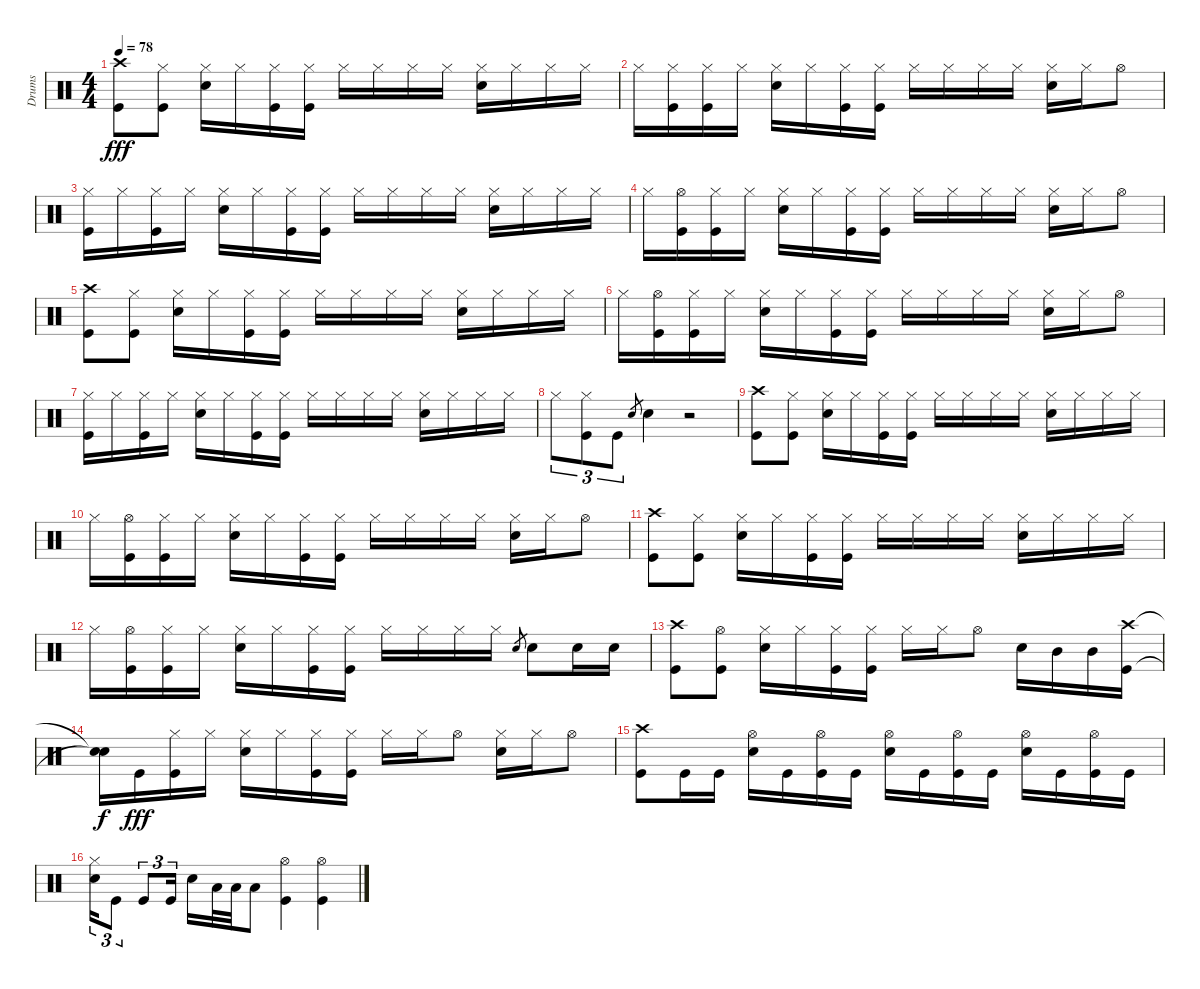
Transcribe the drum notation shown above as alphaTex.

\track ("Drums" "Drums") {instrument percussion}
\staff {score}
\articulation defaults
\ts (4 4)
\tempo 78
\clef neutral
\ks c
("Crash high (hit)" "Kick (hit)").8{dy fff} ("Hi-Hat (closed)" "Kick (hit)").8 ("Hi-Hat (closed)" "Snare (hit) 2").16 "Hi-Hat (closed)".16 ("Hi-Hat (closed)" "Kick (hit)").16 ("Hi-Hat (closed)" "Kick (hit)").16 "Hi-Hat (closed)".16 "Hi-Hat (closed)".16 "Hi-Hat (closed)".16 "Hi-Hat (closed)".16 ("Hi-Hat (closed)" "Snare (hit) 2").16 "Hi-Hat (closed)".16 "Hi-Hat (closed)".16 "Hi-Hat (closed)".16 |
"Hi-Hat (closed)".16 ("Hi-Hat (closed)" "Kick (hit)").16 ("Hi-Hat (closed)" "Kick (hit)").16 "Hi-Hat (closed)".16 ("Hi-Hat (closed)" "Snare (hit) 2").16 "Hi-Hat (closed)".16 ("Hi-Hat (closed)" "Kick (hit)").16 ("Hi-Hat (closed)" "Kick (hit)").16 "Hi-Hat (closed)".16 "Hi-Hat (closed)".16 "Hi-Hat (closed)".16 "Hi-Hat (closed)".16 ("Hi-Hat (closed)" "Snare (hit) 2").16 "Hi-Hat (closed)".16 "Hi-Hat (open)".8 |
("Hi-Hat (closed)" "Kick (hit)").16 "Hi-Hat (closed)".16 ("Hi-Hat (closed)" "Kick (hit)").16 "Hi-Hat (closed)".16 ("Hi-Hat (closed)" "Snare (hit) 2").16 "Hi-Hat (closed)".16 ("Hi-Hat (closed)" "Kick (hit)").16 ("Hi-Hat (closed)" "Kick (hit)").16 "Hi-Hat (closed)".16 "Hi-Hat (closed)".16 "Hi-Hat (closed)".16 "Hi-Hat (closed)".16 ("Hi-Hat (closed)" "Snare (hit) 2").16 "Hi-Hat (closed)".16 "Hi-Hat (closed)".16 "Hi-Hat (closed)".16 |
"Hi-Hat (closed)".16 ("Hi-Hat (open)" "Kick (hit)").16 ("Hi-Hat (closed)" "Kick (hit)").16 "Hi-Hat (closed)".16 ("Hi-Hat (closed)" "Snare (hit) 2").16 "Hi-Hat (closed)".16 ("Hi-Hat (closed)" "Kick (hit)").16 ("Hi-Hat (closed)" "Kick (hit)").16 "Hi-Hat (closed)".16 "Hi-Hat (closed)".16 "Hi-Hat (closed)".16 "Hi-Hat (closed)".16 ("Hi-Hat (closed)" "Snare (hit) 2").16 "Hi-Hat (closed)".16 "Hi-Hat (open)".8 |
("Crash high (hit)" "Kick (hit)").8 ("Hi-Hat (closed)" "Kick (hit)").8 ("Hi-Hat (closed)" "Snare (hit) 2").16 "Hi-Hat (closed)".16 ("Hi-Hat (closed)" "Kick (hit)").16 ("Hi-Hat (closed)" "Kick (hit)").16 "Hi-Hat (closed)".16 "Hi-Hat (closed)".16 "Hi-Hat (closed)".16 "Hi-Hat (closed)".16 ("Hi-Hat (closed)" "Snare (hit) 2").16 "Hi-Hat (closed)".16 "Hi-Hat (closed)".16 "Hi-Hat (closed)".16 |
"Hi-Hat (closed)".16 ("Hi-Hat (open)" "Kick (hit)").16 ("Hi-Hat (closed)" "Kick (hit)").16 "Hi-Hat (closed)".16 ("Hi-Hat (closed)" "Snare (hit) 2").16 "Hi-Hat (closed)".16 ("Hi-Hat (closed)" "Kick (hit)").16 ("Hi-Hat (closed)" "Kick (hit)").16 "Hi-Hat (closed)".16 "Hi-Hat (closed)".16 "Hi-Hat (closed)".16 "Hi-Hat (closed)".16 ("Hi-Hat (closed)" "Snare (hit) 2").16 "Hi-Hat (closed)".16 "Hi-Hat (open)".8 |
("Hi-Hat (closed)" "Kick (hit)").16 "Hi-Hat (closed)".16 ("Hi-Hat (closed)" "Kick (hit)").16 "Hi-Hat (closed)".16 ("Hi-Hat (closed)" "Snare (hit) 2").16 "Hi-Hat (closed)".16 ("Hi-Hat (closed)" "Kick (hit)").16 ("Hi-Hat (closed)" "Kick (hit)").16 "Hi-Hat (closed)".16 "Hi-Hat (closed)".16 "Hi-Hat (closed)".16 "Hi-Hat (closed)".16 ("Hi-Hat (closed)" "Snare (hit) 2").16 "Hi-Hat (closed)".16 "Hi-Hat (closed)".16 "Hi-Hat (closed)".16 |
"Hi-Hat (closed)".8{tu (3 2)} ("Hi-Hat (closed)" "Kick (hit)").8{tu (3 2)} "Kick (hit)".8{tu (3 2)} "Snare (hit) 2".8{gr} "Snare (hit) 2".4 r.2 |
("Crash high (hit)" "Kick (hit)").8 ("Hi-Hat (closed)" "Kick (hit)").8 ("Hi-Hat (closed)" "Snare (hit) 2").16 "Hi-Hat (closed)".16 ("Hi-Hat (closed)" "Kick (hit)").16 ("Hi-Hat (closed)" "Kick (hit)").16 "Hi-Hat (closed)".16 "Hi-Hat (closed)".16 "Hi-Hat (closed)".16 "Hi-Hat (closed)".16 ("Hi-Hat (closed)" "Snare (hit) 2").16 "Hi-Hat (closed)".16 "Hi-Hat (closed)".16 "Hi-Hat (closed)".16 |
"Hi-Hat (closed)".16 ("Hi-Hat (open)" "Kick (hit)").16 ("Hi-Hat (closed)" "Kick (hit)").16 "Hi-Hat (closed)".16 ("Hi-Hat (closed)" "Snare (hit) 2").16 "Hi-Hat (closed)".16 ("Hi-Hat (closed)" "Kick (hit)").16 ("Hi-Hat (closed)" "Kick (hit)").16 "Hi-Hat (closed)".16 "Hi-Hat (closed)".16 "Hi-Hat (closed)".16 "Hi-Hat (closed)".16 ("Hi-Hat (closed)" "Snare (hit) 2").16 "Hi-Hat (closed)".16 "Hi-Hat (open)".8 |
("Crash high (hit)" "Kick (hit)").8 ("Hi-Hat (closed)" "Kick (hit)").8 ("Hi-Hat (closed)" "Snare (hit) 2").16 "Hi-Hat (closed)".16 ("Hi-Hat (closed)" "Kick (hit)").16 ("Hi-Hat (closed)" "Kick (hit)").16 "Hi-Hat (closed)".16 "Hi-Hat (closed)".16 "Hi-Hat (closed)".16 "Hi-Hat (closed)".16 ("Hi-Hat (closed)" "Snare (hit) 2").16 "Hi-Hat (closed)".16 "Hi-Hat (closed)".16 "Hi-Hat (closed)".16 |
"Hi-Hat (closed)".16 ("Hi-Hat (open)" "Kick (hit)").16 ("Hi-Hat (closed)" "Kick (hit)").16 "Hi-Hat (closed)".16 ("Hi-Hat (closed)" "Snare (hit) 2").16 "Hi-Hat (closed)".16 ("Hi-Hat (closed)" "Kick (hit)").16 ("Hi-Hat (closed)" "Kick (hit)").16 "Hi-Hat (closed)".16 "Hi-Hat (closed)".16 "Hi-Hat (closed)".16 "Hi-Hat (closed)".16 "Snare (hit) 2".8{gr} "Snare (hit) 2".8 "Snare (hit) 2".16 "Snare (hit) 2".16 |
("Crash high (hit)" "Kick (hit)").8 ("Hi-Hat (open)" "Kick (hit)").8 ("Hi-Hat (closed)" "Snare (hit) 2").16 "Hi-Hat (closed)".16 ("Hi-Hat (closed)" "Kick (hit)").16 ("Hi-Hat (closed)" "Kick (hit)").16 "Hi-Hat (closed)".16 "Hi-Hat (closed)".16 "Hi-Hat (open)".8 "Snare (hit) 2".16 "Mid Tom (hit)".16 "Mid Tom (hit)".16 ("Crash high (hit)" "Kick (hit)").16 |
("Snare (hit)"{t} "Snare (hit)"{t}).16{dy f} "Kick (hit)".16{dy fff} ("Hi-Hat (closed)" "Kick (hit)").16 "Hi-Hat (closed)".16 ("Hi-Hat (closed)" "Snare (hit) 2").16 "Hi-Hat (closed)".16 ("Hi-Hat (closed)" "Kick (hit)").16 ("Hi-Hat (closed)" "Kick (hit)").16 "Hi-Hat (closed)".16 "Hi-Hat (closed)".16 "Hi-Hat (open)".8 ("Hi-Hat (closed)" "Snare (hit) 2").16 "Hi-Hat (closed)".16 "Hi-Hat (open)".8 |
("Crash high (hit)" "Kick (hit)").8 "Kick (hit)".16 "Kick (hit)".16 ("Hi-Hat (open)" "Snare (hit) 2").16 "Kick (hit)".16 ("Hi-Hat (open)" "Kick (hit)").16 "Kick (hit)".16 ("Hi-Hat (open)" "Snare (hit) 2").16 "Kick (hit)".16 ("Hi-Hat (open)" "Kick (hit)").16 "Kick (hit)".16 ("Hi-Hat (open)" "Snare (hit) 2").16 "Kick (hit)".16 ("Hi-Hat (open)" "Kick (hit)").16 "Kick (hit)".16 |
("Hi-Hat (closed)" "Snare (hit) 2").16{tu (3 2)} "Kick (hit)".8{tu (3 2)} "Kick (hit)".8{tu (3 2)} "Kick (hit)".16{tu (3 2)} "Snare (hit) 2".16 "Low Tom (hit)".32 "Low Tom (hit)".32 "Low Tom (hit)".8 ("Hi-Hat (open)" "Kick (hit)").4 ("Hi-Hat (open)" "Kick (hit)").4
